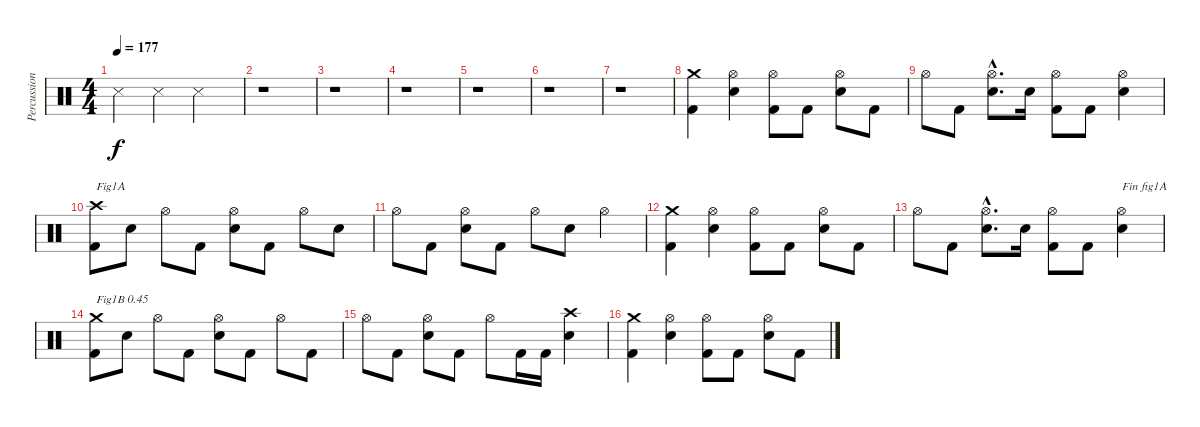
\track ("Percussions" "Percussion") {instrument percussion}
\staff {score}
\articulation defaults
\ts (4 4)
\tempo 177
\clef neutral
\ks c "Metronome (hit)".4{dy f} "Metronome (hit)".4 "Metronome (hit)".2
|
r.1 |
r.1 |
r.1 |
r.1 |
r.1 |
r.1 |
("Kick (hit) 2" "Crash medium (hit)").4 ("Electric Snare (hit)" "Hi-Hat (open)").4 ("Kick (hit) 2" "Hi-Hat (open)").8 "Kick (hit) 2".8 ("Electric Snare (hit)" "Hi-Hat (open)").8 "Kick (hit) 2".8 |
"Hi-Hat (open)".8 "Kick (hit) 2".8 ("Electric Snare (hit)"{hac} "Hi-Hat (open)"{hac}).8{d} "Electric Snare (hit)".16 ("Kick (hit) 2" "Hi-Hat (open)").8 "Kick (hit) 2".8 ("Electric Snare (hit)" "Hi-Hat (open)").4 |
("Kick (hit) 2" "Crash high (hit)").8{txt "Fig1A"} "Electric Snare (hit)".8 "Hi-Hat (open)".8 "Kick (hit) 2".8 ("Electric Snare (hit)" "Hi-Hat (open)").8 "Kick (hit) 2".8 "Hi-Hat (open)".8 "Electric Snare (hit)".8 |
"Hi-Hat (open)".8 "Kick (hit) 2".8 ("Electric Snare (hit)" "Hi-Hat (open)").8 "Kick (hit) 2".8 "Hi-Hat (open)".8 "Electric Snare (hit)".8 "Hi-Hat (open)".4 |
("Kick (hit) 2" "Crash medium (hit)").4 ("Electric Snare (hit)" "Hi-Hat (open)").4 ("Kick (hit) 2" "Hi-Hat (open)").8 "Kick (hit) 2".8 ("Electric Snare (hit)" "Hi-Hat (open)").8 "Kick (hit) 2".8 |
"Hi-Hat (open)".8 "Kick (hit) 2".8 ("Electric Snare (hit)"{hac} "Hi-Hat (open)"{hac}).8{d} "Electric Snare (hit)".16 ("Kick (hit) 2" "Hi-Hat (open)").8 "Kick (hit) 2".8 ("Electric Snare (hit)" "Hi-Hat (open)").4{txt "Fin fig1A"} |
("Kick (hit) 2" "Crash medium (hit)").8{txt "Fig1B 0.45"} "Electric Snare (hit)".8 "Hi-Hat (open)".8 "Kick (hit) 2".8 ("Electric Snare (hit)" "Hi-Hat (open)").8 "Kick (hit) 2".8 "Hi-Hat (open)".8 "Kick (hit) 2".8 |
"Hi-Hat (open)".8 "Kick (hit) 2".8 ("Electric Snare (hit)" "Hi-Hat (open)").8 "Kick (hit) 2".8 "Hi-Hat (open)".8 "Kick (hit) 2".16 "Kick (hit) 2".16 ("Electric Snare (hit)" "Crash high (hit)").4 |
("Kick (hit) 2" "Crash medium (hit)").4 ("Electric Snare (hit)" "Hi-Hat (open)").4 ("Kick (hit) 2" "Hi-Hat (open)").8 "Kick (hit) 2".8 ("Electric Snare (hit)" "Hi-Hat (open)").8 "Kick (hit) 2".8
